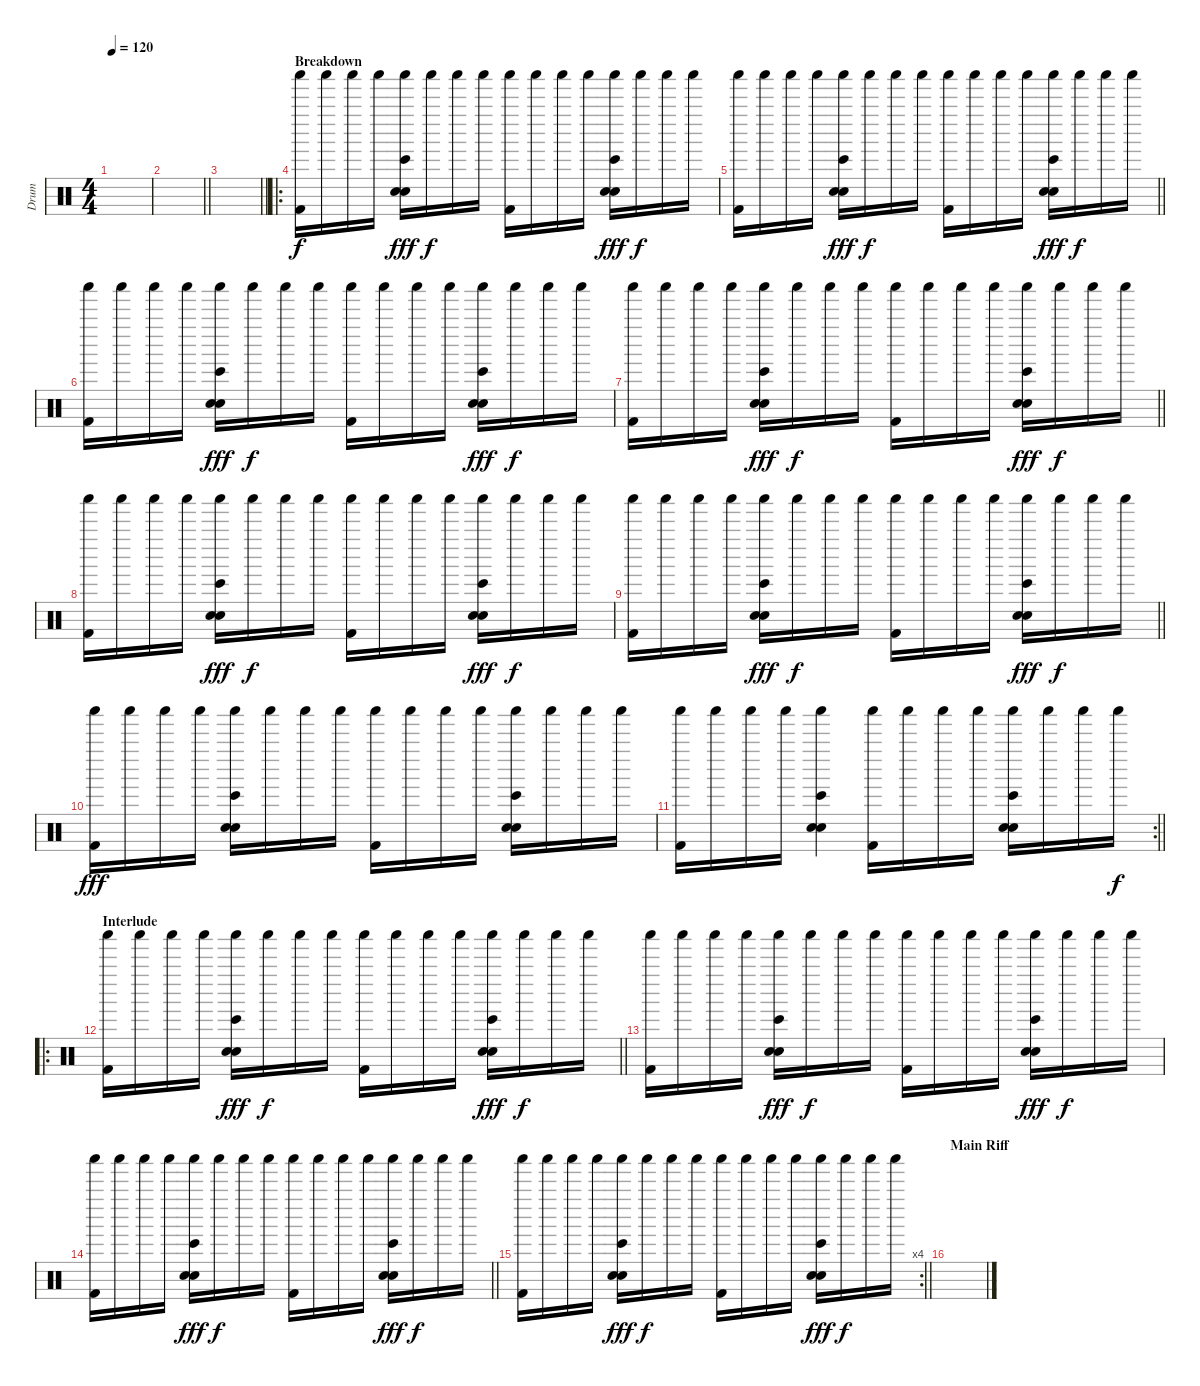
\track ("Drum" "Drum") {instrument percussion}
\staff {score}
\articulation defaults
\ts (4 4)
\tempo 120
\clef neutral
\ks c
|
\barLineRight lightlight
|
\barLineRight lightlight
|
\ro
\section ("" "Breakdown")
("Kick (hit) 2" "Shaker (hit)").16 "Shaker (hit)".16 "Shaker (hit)".16 "Shaker (hit)".16 ("Electric Snare (hit)" "Shaker (hit)" "Hand Clap (hit)" "Bongo High (hit)").16{dy fff} "Shaker (hit)".16{dy f} "Shaker (hit)".16 "Shaker (hit)".16 ("Kick (hit) 2" "Shaker (hit)").16 "Shaker (hit)".16 "Shaker (hit)".16 "Shaker (hit)".16 ("Electric Snare (hit)" "Shaker (hit)" "Hand Clap (hit)" "Bongo High (hit)").16{dy fff} "Shaker (hit)".16{dy f} "Shaker (hit)".16 "Shaker (hit)".16 |
\barLineRight lightlight
("Kick (hit) 2" "Shaker (hit)").16 "Shaker (hit)".16 "Shaker (hit)".16 "Shaker (hit)".16 ("Electric Snare (hit)" "Shaker (hit)" "Hand Clap (hit)" "Bongo High (hit)").16{dy fff} "Shaker (hit)".16{dy f} "Shaker (hit)".16 "Shaker (hit)".16 ("Kick (hit) 2" "Shaker (hit)").16 "Shaker (hit)".16 "Shaker (hit)".16 "Shaker (hit)".16 ("Electric Snare (hit)" "Shaker (hit)" "Hand Clap (hit)" "Bongo High (hit)").16{dy fff} "Shaker (hit)".16{dy f} "Shaker (hit)".16 "Shaker (hit)".16 |
("Kick (hit) 2" "Shaker (hit)").16 "Shaker (hit)".16 "Shaker (hit)".16 "Shaker (hit)".16 ("Electric Snare (hit)" "Shaker (hit)" "Hand Clap (hit)" "Bongo High (hit)").16{dy fff} "Shaker (hit)".16{dy f} "Shaker (hit)".16 "Shaker (hit)".16 ("Kick (hit) 2" "Shaker (hit)").16 "Shaker (hit)".16 "Shaker (hit)".16 "Shaker (hit)".16 ("Electric Snare (hit)" "Shaker (hit)" "Hand Clap (hit)" "Bongo High (hit)").16{dy fff} "Shaker (hit)".16{dy f} "Shaker (hit)".16 "Shaker (hit)".16 |
\barLineRight lightlight
("Kick (hit) 2" "Shaker (hit)").16 "Shaker (hit)".16 "Shaker (hit)".16 "Shaker (hit)".16 ("Electric Snare (hit)" "Shaker (hit)" "Hand Clap (hit)" "Bongo High (hit)").16{dy fff} "Shaker (hit)".16{dy f} "Shaker (hit)".16 "Shaker (hit)".16 ("Kick (hit) 2" "Shaker (hit)").16 "Shaker (hit)".16 "Shaker (hit)".16 "Shaker (hit)".16 ("Electric Snare (hit)" "Shaker (hit)" "Hand Clap (hit)" "Bongo High (hit)").16{dy fff} "Shaker (hit)".16{dy f} "Shaker (hit)".16 "Shaker (hit)".16 |
("Kick (hit) 2" "Shaker (hit)").16 "Shaker (hit)".16 "Shaker (hit)".16 "Shaker (hit)".16 ("Electric Snare (hit)" "Shaker (hit)" "Hand Clap (hit)" "Bongo High (hit)").16{dy fff} "Shaker (hit)".16{dy f} "Shaker (hit)".16 "Shaker (hit)".16 ("Kick (hit) 2" "Shaker (hit)").16 "Shaker (hit)".16 "Shaker (hit)".16 "Shaker (hit)".16 ("Electric Snare (hit)" "Shaker (hit)" "Hand Clap (hit)" "Bongo High (hit)").16{dy fff} "Shaker (hit)".16{dy f} "Shaker (hit)".16 "Shaker (hit)".16 |
\barLineRight lightlight
("Kick (hit) 2" "Shaker (hit)").16 "Shaker (hit)".16 "Shaker (hit)".16 "Shaker (hit)".16 ("Electric Snare (hit)" "Shaker (hit)" "Hand Clap (hit)" "Bongo High (hit)").16{dy fff} "Shaker (hit)".16{dy f} "Shaker (hit)".16 "Shaker (hit)".16 ("Kick (hit) 2" "Shaker (hit)").16 "Shaker (hit)".16 "Shaker (hit)".16 "Shaker (hit)".16 ("Electric Snare (hit)" "Shaker (hit)" "Hand Clap (hit)" "Bongo High (hit)").16{dy fff} "Shaker (hit)".16{dy f} "Shaker (hit)".16 "Shaker (hit)".16 |
("Kick (hit) 2" "Shaker (hit)").16{dy fff} "Shaker (hit)".16 "Shaker (hit)".16 "Shaker (hit)".16 ("Electric Snare (hit)" "Shaker (hit)" "Hand Clap (hit)" "Bongo High (hit)").16 "Shaker (hit)".16 "Shaker (hit)".16 "Shaker (hit)".16 ("Kick (hit) 2" "Shaker (hit)").16 "Shaker (hit)".16 "Shaker (hit)".16 "Shaker (hit)".16 ("Electric Snare (hit)" "Shaker (hit)" "Hand Clap (hit)" "Bongo High (hit)").16 "Shaker (hit)".16 "Shaker (hit)".16 "Shaker (hit)".16 |
\rc 2
\barLineRight lightlight
("Kick (hit) 2" "Shaker (hit)").16 "Shaker (hit)".16 "Shaker (hit)".16 "Shaker (hit)".16 ("Electric Snare (hit)" "Shaker (hit)" "Hand Clap (hit)" "Bongo High (hit)").4 ("Kick (hit) 2" "Shaker (hit)").16 "Shaker (hit)".16 "Shaker (hit)".16 "Shaker (hit)".16 ("Electric Snare (hit)" "Shaker (hit)" "Hand Clap (hit)" "Bongo High (hit)").16 "Shaker (hit)".16 "Shaker (hit)".16 "Shaker (hit)".16{dy f} |
\ro
\section ("" "Interlude")
\barLineRight lightlight
("Kick (hit) 2" "Shaker (hit)").16 "Shaker (hit)".16 "Shaker (hit)".16 "Shaker (hit)".16 ("Electric Snare (hit)" "Shaker (hit)" "Hand Clap (hit)" "Bongo High (hit)").16{dy fff} "Shaker (hit)".16{dy f} "Shaker (hit)".16 "Shaker (hit)".16 ("Kick (hit) 2" "Shaker (hit)").16 "Shaker (hit)".16 "Shaker (hit)".16 "Shaker (hit)".16 ("Electric Snare (hit)" "Shaker (hit)" "Hand Clap (hit)" "Bongo High (hit)").16{dy fff} "Shaker (hit)".16{dy f} "Shaker (hit)".16 "Shaker (hit)".16 |
("Kick (hit) 2" "Shaker (hit)").16 "Shaker (hit)".16 "Shaker (hit)".16 "Shaker (hit)".16 ("Electric Snare (hit)" "Shaker (hit)" "Hand Clap (hit)" "Bongo High (hit)").16{dy fff} "Shaker (hit)".16{dy f} "Shaker (hit)".16 "Shaker (hit)".16 ("Kick (hit) 2" "Shaker (hit)").16 "Shaker (hit)".16 "Shaker (hit)".16 "Shaker (hit)".16 ("Electric Snare (hit)" "Shaker (hit)" "Hand Clap (hit)" "Bongo High (hit)").16{dy fff} "Shaker (hit)".16{dy f} "Shaker (hit)".16 "Shaker (hit)".16 |
\barLineRight lightlight
("Kick (hit) 2" "Shaker (hit)").16 "Shaker (hit)".16 "Shaker (hit)".16 "Shaker (hit)".16 ("Electric Snare (hit)" "Shaker (hit)" "Hand Clap (hit)" "Bongo High (hit)").16{dy fff} "Shaker (hit)".16{dy f} "Shaker (hit)".16 "Shaker (hit)".16 ("Kick (hit) 2" "Shaker (hit)").16 "Shaker (hit)".16 "Shaker (hit)".16 "Shaker (hit)".16 ("Electric Snare (hit)" "Shaker (hit)" "Hand Clap (hit)" "Bongo High (hit)").16{dy fff} "Shaker (hit)".16{dy f} "Shaker (hit)".16 "Shaker (hit)".16 |
\rc 4
\barLineRight lightlight
("Kick (hit) 2" "Shaker (hit)").16 "Shaker (hit)".16 "Shaker (hit)".16 "Shaker (hit)".16 ("Electric Snare (hit)" "Shaker (hit)" "Hand Clap (hit)" "Bongo High (hit)").16{dy fff} "Shaker (hit)".16{dy f} "Shaker (hit)".16 "Shaker (hit)".16 ("Kick (hit) 2" "Shaker (hit)").16 "Shaker (hit)".16 "Shaker (hit)".16 "Shaker (hit)".16 ("Electric Snare (hit)" "Shaker (hit)" "Hand Clap (hit)" "Bongo High (hit)").16{dy fff} "Shaker (hit)".16{dy f} "Shaker (hit)".16 "Shaker (hit)".16 |
\section ("" "Main Riff")
